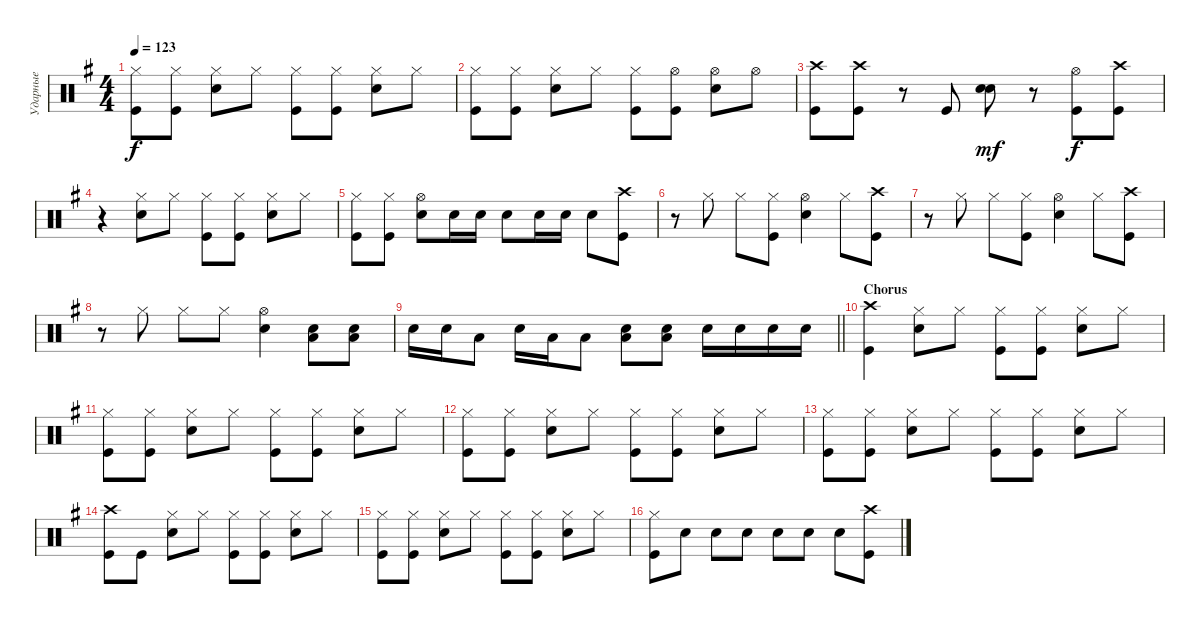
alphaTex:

\track ("Ударные" "Ударные") {instrument percussion}
\staff {score}
\articulation defaults
\ts (4 4)
\tempo 123
\clef neutral
\ks eminor
("Hi-Hat (closed)" "Kick (hit)").8{dy f} ("Hi-Hat (closed)" "Kick (hit)").8 ("Snare (hit) 2" "Hi-Hat (closed)").8 "Hi-Hat (closed)".8 ("Hi-Hat (closed)" "Kick (hit)").8 ("Hi-Hat (closed)" "Kick (hit)").8 ("Hi-Hat (closed)" "Snare (hit) 2").8 "Hi-Hat (closed)".8 |
("Hi-Hat (closed)" "Kick (hit)").8 ("Hi-Hat (closed)" "Kick (hit)").8 ("Snare (hit) 2" "Hi-Hat (closed)").8 "Hi-Hat (closed)".8 ("Hi-Hat (closed)" "Kick (hit)").8 ("Hi-Hat (open)" "Kick (hit)").8 ("Hi-Hat (open)" "Snare (hit) 2").8 "Hi-Hat (open)".8 |
("Crash high (hit)" "Kick (hit)").8 ("Kick (hit)" "Crash high (hit)").8 r.8 "Kick (hit)".8 ("Snare (hit) 2" "Snare (hit) 2").8{bd 120 dy mf} r.8 ("Kick (hit)" "Hi-Hat (open)").8{dy f} ("Kick (hit)" "Crash high (hit)").8 |
r.4 ("Snare (hit) 2" "Hi-Hat (closed)").8 "Hi-Hat (closed)".8 ("Hi-Hat (closed)" "Kick (hit)").8 ("Hi-Hat (closed)" "Kick (hit)").8 ("Hi-Hat (closed)" "Snare (hit) 2").8 "Hi-Hat (closed)".8 |
("Hi-Hat (closed)" "Kick (hit)").8 ("Hi-Hat (closed)" "Kick (hit)").8 ("Snare (hit) 2" "Hi-Hat (open)").8 "Snare (hit) 2".16 "Snare (hit) 2".16 "Snare (hit) 2".8 "Snare (hit) 2".16 "Snare (hit) 2".16 "Snare (hit) 2".8 ("Kick (hit)" "Crash high (hit)").8 |
r.8 "Hi-Hat (closed)".8 "Hi-Hat (closed)".8 ("Hi-Hat (closed)" "Kick (hit)").8 ("Hi-Hat (open)" "Snare (hit) 2").4 "Hi-Hat (closed)".8 ("Kick (hit)" "Crash high (hit)").8 |
r.8 "Hi-Hat (closed)".8 "Hi-Hat (closed)".8 ("Hi-Hat (closed)" "Kick (hit)").8 ("Hi-Hat (open)" "Snare (hit) 2").4 "Hi-Hat (closed)".8 ("Kick (hit)" "Crash high (hit)").8 |
r.8 "Hi-Hat (closed)".8 "Hi-Hat (closed)".8 "Hi-Hat (closed)".8 ("Hi-Hat (open)" "Snare (hit) 2").4 ("Snare (hit) 2" "Low Tom (hit)").8{bd 120} ("Snare (hit) 2" "Low Tom (hit)").8{bd 120} |
\barLineRight lightlight "Snare (hit) 2".16 "Snare (hit) 2".16 "Low Tom (hit)".8 "Snare (hit) 2".16 "Low Tom (hit)".16 "Low Tom (hit)".8
("Snare (hit) 2" "Low Tom (hit)").8{bd 120} ("Snare (hit) 2" "Low Tom (hit)").8{bd 120} "Snare (hit) 2".16 "Snare (hit) 2".16 "Snare (hit) 2".16 "Snare (hit) 2".16 |
\section ("" "Chorus")
("Crash high (hit)" "Kick (hit)").4 ("Snare (hit) 2" "Hi-Hat (closed)").8 "Hi-Hat (closed)".8 ("Hi-Hat (closed)" "Kick (hit)").8 ("Hi-Hat (closed)" "Kick (hit)").8 ("Hi-Hat (closed)" "Snare (hit) 2").8 "Hi-Hat (closed)".8 |
("Hi-Hat (closed)" "Kick (hit)").8 ("Hi-Hat (closed)" "Kick (hit)").8 ("Snare (hit) 2" "Hi-Hat (closed)").8 "Hi-Hat (closed)".8 ("Hi-Hat (closed)" "Kick (hit)").8 ("Hi-Hat (closed)" "Kick (hit)").8 ("Hi-Hat (closed)" "Snare (hit) 2").8 "Hi-Hat (closed)".8 |
("Hi-Hat (closed)" "Kick (hit)").8 ("Hi-Hat (closed)" "Kick (hit)").8 ("Snare (hit) 2" "Hi-Hat (closed)").8 "Hi-Hat (closed)".8 ("Hi-Hat (closed)" "Kick (hit)").8 ("Hi-Hat (closed)" "Kick (hit)").8 ("Hi-Hat (closed)" "Snare (hit) 2").8 "Hi-Hat (closed)".8 |
("Hi-Hat (closed)" "Kick (hit)").8 ("Hi-Hat (closed)" "Kick (hit)").8 ("Snare (hit) 2" "Hi-Hat (closed)").8 "Hi-Hat (closed)".8 ("Hi-Hat (closed)" "Kick (hit)").8 ("Hi-Hat (closed)" "Kick (hit)").8 ("Hi-Hat (closed)" "Snare (hit) 2").8 "Hi-Hat (closed)".8 |
("Crash high (hit)" "Kick (hit)").8 "Kick (hit)".8 ("Snare (hit) 2" "Hi-Hat (closed)").8 "Hi-Hat (closed)".8 ("Hi-Hat (closed)" "Kick (hit)").8 ("Hi-Hat (closed)" "Kick (hit)").8 ("Hi-Hat (closed)" "Snare (hit) 2").8 "Hi-Hat (closed)".8 |
("Hi-Hat (closed)" "Kick (hit)").8 ("Hi-Hat (closed)" "Kick (hit)").8 ("Snare (hit) 2" "Hi-Hat (closed)").8 "Hi-Hat (closed)".8 ("Hi-Hat (closed)" "Kick (hit)").8 ("Hi-Hat (closed)" "Kick (hit)").8 ("Hi-Hat (closed)" "Snare (hit) 2").8 "Hi-Hat (closed)".8 |
("Hi-Hat (closed)" "Kick (hit)").8 "Snare (hit) 2".8 "Snare (hit) 2".8 "Snare (hit) 2".8 "Snare (hit) 2".8 "Snare (hit) 2".8 "Snare (hit) 2".8 ("Kick (hit)" "Crash high (hit)").8
